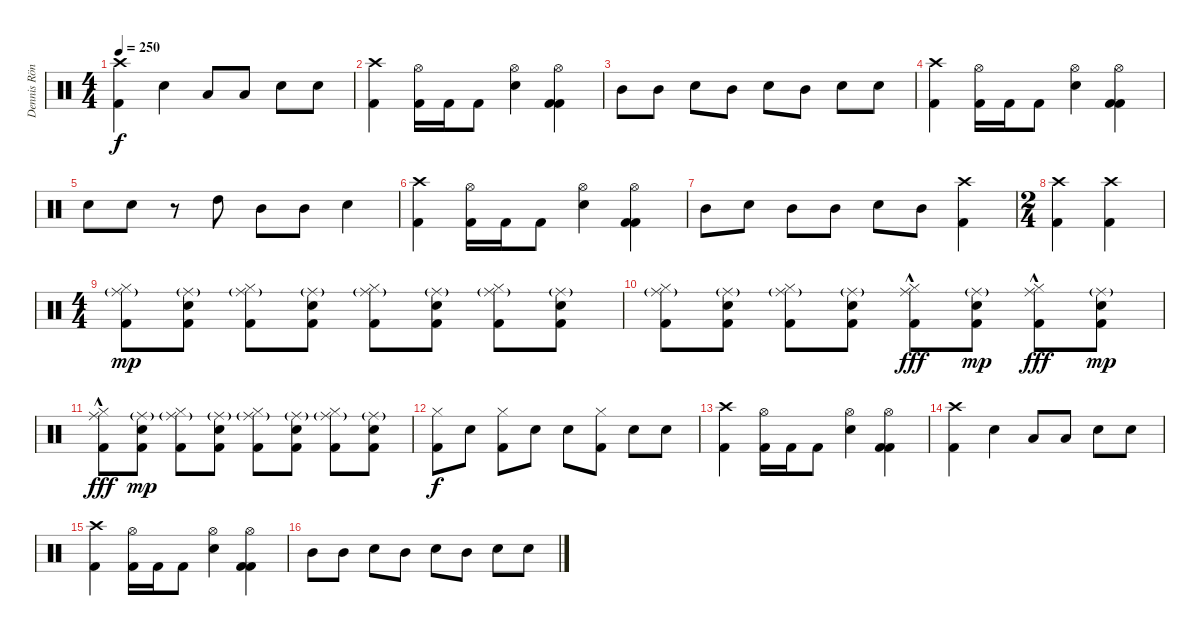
\track ("Dennis Röndum" "Dennis Rön") {instrument percussion}
\staff {score}
\articulation defaults
\ts (4 4)
\tempo 250
\clef neutral
\ks c
("Crash high (hit)" "Kick (hit) 2").4{dy f} "Snare (hit) 2".4 "Low Floor Tom (hit)".8 "Low Floor Tom (hit)".8 "Snare (hit) 2".8 "Snare (hit) 2".8 |
("Crash high (hit)" "Kick (hit) 2").4 ("Hi-Hat (open)" "Kick (hit) 2").16 "Kick (hit) 2".16 "Kick (hit) 2".8 ("Snare (hit) 2" "Hi-Hat (open)").4 ("Hi-Hat (open)" "Kick (hit) 2" "Kick (hit) 2").4 |
"Mid Tom (hit)".8 "Mid Tom (hit)".8 "Snare (hit) 2".8 "Mid Tom (hit)".8 "Snare (hit) 2".8 "Mid Tom (hit)".8 "Snare (hit) 2".8 "Snare (hit) 2".8 |
("Crash high (hit)" "Kick (hit) 2").4 ("Hi-Hat (open)" "Kick (hit) 2").16 "Kick (hit) 2".16 "Kick (hit) 2".8 ("Snare (hit) 2" "Hi-Hat (open)").4 ("Hi-Hat (open)" "Kick (hit) 2" "Kick (hit) 2").4 |
"Snare (hit) 2".8 "Snare (hit) 2".8 r.8 "High Tom (hit)".8 "Mid Tom (hit)".8 "Mid Tom (hit)".8 "Snare (hit) 2".4 |
("Crash high (hit)" "Kick (hit) 2").4 ("Hi-Hat (open)" "Kick (hit) 2").16 "Kick (hit) 2".16 "Kick (hit) 2".8 ("Snare (hit) 2" "Hi-Hat (open)").4 ("Hi-Hat (open)" "Kick (hit) 2" "Kick (hit) 2").4 |
"Mid Tom (hit)".8 "Snare (hit) 2".8 "Mid Tom (hit)".8 "Mid Tom (hit)".8 "Snare (hit) 2".8 "Mid Tom (hit)".8 ("Crash high (hit)" "Kick (hit) 2").4 |
\ts (2 4)
("Crash high (hit)" "Kick (hit) 2").4 ("Crash high (hit)" "Kick (hit) 2").4 |
\ts (4 4)
("Hi-Hat (closed)" "Ride (middle)"{g} "Kick (hit) 2").8{dy mp} ("Snare (hit) 2" "Ride (middle)"{g} "Kick (hit) 2").8 ("Hi-Hat (closed)" "Ride (middle)"{g} "Kick (hit) 2").8 ("Snare (hit) 2" "Ride (middle)"{g} "Kick (hit) 2").8 ("Hi-Hat (closed)" "Ride (middle)"{g} "Kick (hit) 2").8 ("Snare (hit) 2" "Ride (middle)"{g} "Kick (hit) 2").8 ("Hi-Hat (closed)" "Ride (middle)"{g} "Kick (hit) 2").8 ("Snare (hit) 2" "Ride (middle)"{g} "Kick (hit) 2").8 |
("Hi-Hat (closed)" "Ride (middle)"{g} "Kick (hit) 2").8 ("Snare (hit) 2" "Ride (middle)"{g} "Kick (hit) 2").8 ("Hi-Hat (closed)" "Ride (middle)"{g} "Kick (hit) 2").8 ("Snare (hit) 2" "Ride (middle)"{g} "Kick (hit) 2").8 ("Hi-Hat (closed)" "Ride (middle)"{hac} "Kick (hit) 2").8{dy fff} ("Snare (hit) 2" "Ride (middle)"{g} "Kick (hit) 2").8{dy mp} ("Hi-Hat (closed)" "Ride (middle)"{hac} "Kick (hit) 2").8{dy fff} ("Snare (hit) 2" "Ride (middle)"{g} "Kick (hit) 2").8{dy mp} |
("Hi-Hat (closed)" "Ride (middle)"{hac} "Kick (hit) 2").8{dy fff} ("Snare (hit) 2" "Ride (middle)"{g} "Kick (hit) 2").8{dy mp} ("Hi-Hat (closed)" "Ride (middle)"{g} "Kick (hit) 2").8 ("Snare (hit) 2" "Ride (middle)"{g} "Kick (hit) 2").8 ("Hi-Hat (closed)" "Ride (middle)"{g} "Kick (hit) 2").8 ("Snare (hit) 2" "Ride (middle)"{g} "Kick (hit) 2").8 ("Hi-Hat (closed)" "Ride (middle)"{g} "Kick (hit) 2").8 ("Snare (hit) 2" "Ride (middle)"{g} "Kick (hit) 2").8 |
("Hi-Hat (closed)" "Kick (hit) 2").8{dy f} "Snare (hit) 2".8 ("Hi-Hat (closed)" "Kick (hit) 2").8 "Snare (hit) 2".8 "Snare (hit) 2".8 ("Hi-Hat (closed)" "Kick (hit) 2").8 "Snare (hit) 2".8 "Snare (hit) 2".8 |
("Crash high (hit)" "Kick (hit) 2").4 ("Hi-Hat (open)" "Kick (hit) 2").16 "Kick (hit) 2".16 "Kick (hit) 2".8 ("Snare (hit) 2" "Hi-Hat (open)").4 ("Hi-Hat (open)" "Kick (hit) 2" "Kick (hit) 2").4 |
("Crash high (hit)" "Kick (hit) 2").4 "Snare (hit) 2".4 "Low Floor Tom (hit)".8 "Low Floor Tom (hit)".8 "Snare (hit) 2".8 "Snare (hit) 2".8 |
("Crash high (hit)" "Kick (hit) 2").4 ("Hi-Hat (open)" "Kick (hit) 2").16 "Kick (hit) 2".16 "Kick (hit) 2".8 ("Snare (hit) 2" "Hi-Hat (open)").4 ("Hi-Hat (open)" "Kick (hit) 2" "Kick (hit) 2").4 |
"Mid Tom (hit)".8 "Mid Tom (hit)".8 "Snare (hit) 2".8 "Mid Tom (hit)".8 "Snare (hit) 2".8 "Mid Tom (hit)".8 "Snare (hit) 2".8 "Snare (hit) 2".8
